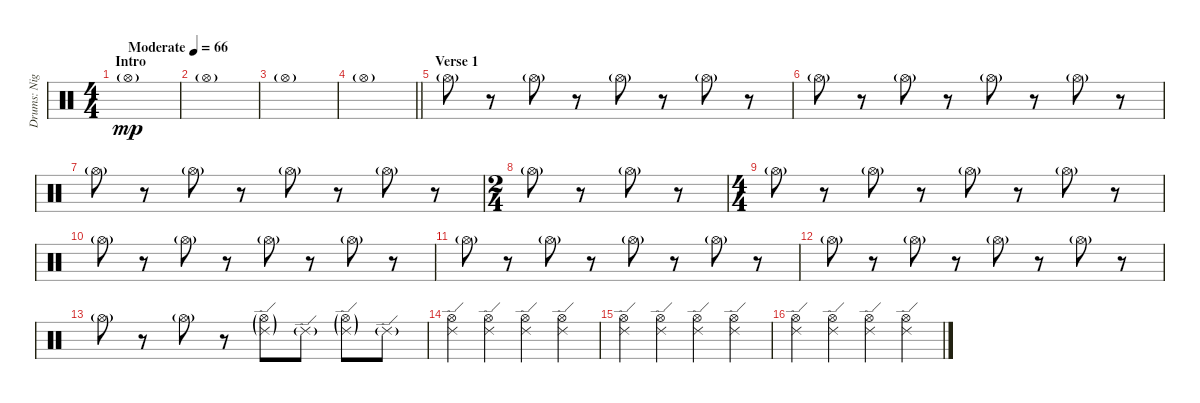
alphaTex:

\track ("Drums: Nigel Olsson" "Drums: Nig") {instrument percussion}
\staff {score}
\articulation defaults
\ts (4 4)
\section ("" "Intro")
\tempo (66 "Moderate")
\clef neutral
\ks c "Hi-Hat (open)"{g}.1{dy mp}
|
"Hi-Hat (open)"{g}.1 |
"Hi-Hat (open)"{g}.1 |
\barLineRight lightlight "Hi-Hat (open)"{g}.1
|
\section ("" "Verse 1")
"Hi-Hat (open)"{g}.8 r.8 "Hi-Hat (open)"{g}.8 r.8 "Hi-Hat (open)"{g}.8 r.8 "Hi-Hat (open)"{g}.8 r.8 |
"Hi-Hat (open)"{g}.8 r.8 "Hi-Hat (open)"{g}.8 r.8 "Hi-Hat (open)"{g}.8 r.8 "Hi-Hat (open)"{g}.8 r.8 |
"Hi-Hat (open)"{g}.8 r.8 "Hi-Hat (open)"{g}.8 r.8 "Hi-Hat (open)"{g}.8 r.8 "Hi-Hat (open)"{g}.8 r.8 |
\ts (2 4)
"Hi-Hat (open)"{g}.8 r.8 "Hi-Hat (open)"{g}.8 r.8 |
\ts (4 4)
"Hi-Hat (open)"{g}.8 r.8 "Hi-Hat (open)"{g}.8 r.8 "Hi-Hat (open)"{g}.8 r.8 "Hi-Hat (open)"{g}.8 r.8 |
"Hi-Hat (open)"{g}.8 r.8 "Hi-Hat (open)"{g}.8 r.8 "Hi-Hat (open)"{g}.8 r.8 "Hi-Hat (open)"{g}.8 r.8 |
"Hi-Hat (open)"{g}.8 r.8 "Hi-Hat (open)"{g}.8 r.8 "Hi-Hat (open)"{g}.8 r.8 "Hi-Hat (open)"{g}.8 r.8 |
"Hi-Hat (open)"{g}.8 r.8 "Hi-Hat (open)"{g}.8 r.8 "Hi-Hat (open)"{g}.8 r.8 "Hi-Hat (open)"{g}.8 r.8 |
"Hi-Hat (open)"{g}.8 r.8 "Hi-Hat (open)"{g}.8 r.8 ("Hi-Hat (open)"{g} "Ride (edge) 2"{g}).8 "Ride (edge) 2"{g}.8 ("Hi-Hat (open)"{g} "Ride (edge) 2"{g}).8 "Ride (edge) 2"{g}.8 |
("Hi-Hat (open)" "Ride (edge) 2").4 ("Hi-Hat (open)" "Ride (edge) 2").4 ("Hi-Hat (open)" "Ride (edge) 2").4 ("Hi-Hat (open)" "Ride (edge) 2").4 |
("Hi-Hat (open)" "Ride (edge) 2").4 ("Hi-Hat (open)" "Ride (edge) 2").4 ("Hi-Hat (open)" "Ride (edge) 2").4 ("Hi-Hat (open)" "Ride (edge) 2").4 |
("Hi-Hat (open)" "Ride (edge) 2").4 ("Hi-Hat (open)" "Ride (edge) 2").4 ("Hi-Hat (open)" "Ride (edge) 2").4 ("Hi-Hat (open)" "Ride (edge) 2").4
